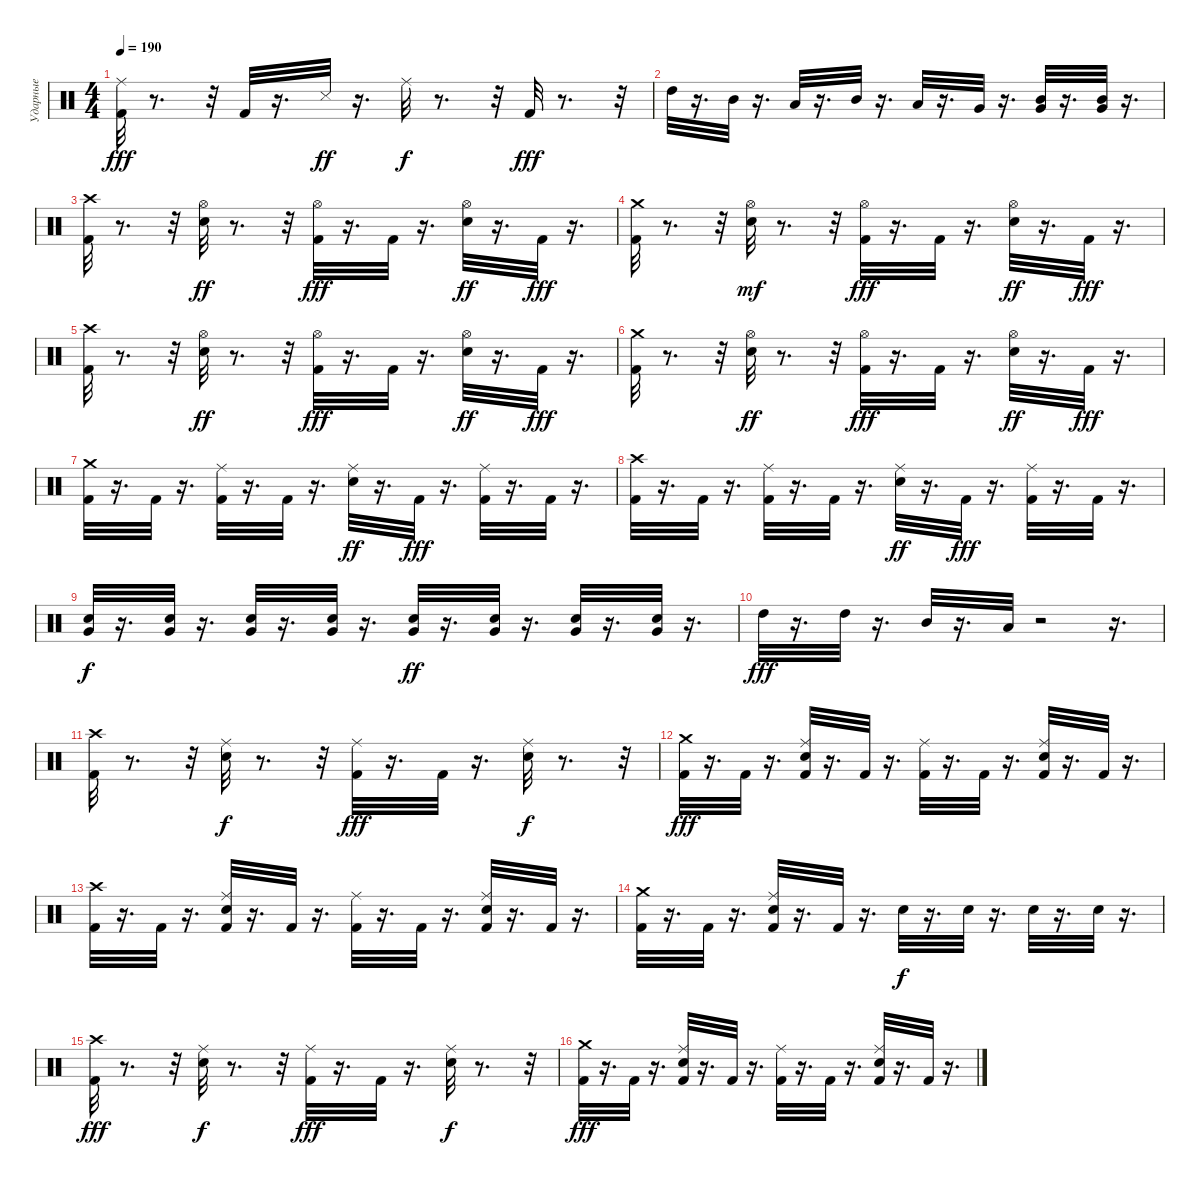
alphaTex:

\track ("Ударные" "Ударные") {instrument percussion}
\staff {score}
\articulation defaults
\ts (4 4)
\tempo 190
\clef neutral
\ks c
("Kick (hit) 2" "Ride (middle)").32{dy fff} r.8{d} r.32 "Kick (hit) 2".32 r.16{d} "Snare (side stick) 3".32{dy ff} r.16{d} "Ride (middle)".32{dy f} r.8{d} r.32 "Kick (hit) 2".32{dy fff} r.8{d} r.32 |
"High Tom (hit)".32 r.16{d} "Mid Tom (hit)".32 r.16{d} "Low Tom (hit)".32 r.16{d} "Mid Tom (hit)".32 r.16{d} "Low Tom (hit)".32 r.16{d} "Very Low Tom (hit)".32 r.16{d} ("Mid Tom (hit)" "Very Low Tom (hit)").32 r.16{d} ("Mid Tom (hit)" "Very Low Tom (hit)").32 r.16{d} |
("Kick (hit) 2" "Crash high (hit)").32 r.8{d} r.32 ("Hi-Hat (open)" "Snare (hit) 2").32{dy ff} r.8{d} r.32 ("Hi-Hat (open)" "Kick (hit) 2").32{dy fff} r.16{d} "Kick (hit) 2".32 r.16{d} ("Hi-Hat (open)" "Snare (hit) 2").32{dy ff} r.16{d} "Kick (hit) 2".32{dy fff} r.16{d} |
("Crash medium (hit)" "Kick (hit) 2").32 r.8{d} r.32 ("Snare (hit) 2" "Hi-Hat (open)").32{dy mf} r.8{d} r.32 ("Hi-Hat (open)" "Kick (hit) 2").32{dy fff} r.16{d} "Kick (hit) 2".32 r.16{d} ("Hi-Hat (open)" "Snare (hit) 2").32{dy ff} r.16{d} "Kick (hit) 2".32{dy fff} r.16{d} |
("Crash high (hit)" "Kick (hit) 2").32 r.8{d} r.32 ("Hi-Hat (open)" "Snare (hit) 2").32{dy ff} r.8{d} r.32 ("Hi-Hat (open)" "Kick (hit) 2").32{dy fff} r.16{d} "Kick (hit) 2".32 r.16{d} ("Hi-Hat (open)" "Snare (hit) 2").32{dy ff} r.16{d} "Kick (hit) 2".32{dy fff} r.16{d} |
("Crash medium (hit)" "Kick (hit) 2").32 r.8{d} r.32 ("Hi-Hat (open)" "Snare (hit) 2").32{dy ff} r.8{d} r.32 ("Hi-Hat (open)" "Kick (hit) 2").32{dy fff} r.16{d} "Kick (hit) 2".32 r.16{d} ("Hi-Hat (open)" "Snare (hit) 2").32{dy ff} r.16{d} "Kick (hit) 2".32{dy fff} r.16{d} |
("Crash medium (hit)" "Kick (hit) 2").32 r.16{d} "Kick (hit) 2".32 r.16{d} ("Kick (hit) 2" "Ride (middle)").32 r.16{d} "Kick (hit) 2".32 r.16{d} ("Snare (hit) 2" "Ride (middle)").32{dy ff} r.16{d} "Kick (hit) 2".32{dy fff} r.16{d} ("Kick (hit) 2" "Ride (middle)").32 r.16{d} "Kick (hit) 2".32 r.16{d} |
("Kick (hit) 2" "Crash high (hit)").32 r.16{d} "Kick (hit) 2".32 r.16{d} ("Ride (middle)" "Kick (hit) 2").32 r.16{d} "Kick (hit) 2".32 r.16{d} ("Ride (middle)" "Snare (hit) 2").32{dy ff} r.16{d} "Kick (hit) 2".32{dy fff} r.16{d} ("Kick (hit) 2" "Ride (middle)").32 r.16{d} "Kick (hit) 2".32 r.16{d} |
("Very Low Tom (hit)" "Snare (hit) 2").32{dy f} r.16{d} ("Very Low Tom (hit)" "Snare (hit) 2").32 r.16{d} ("Very Low Tom (hit)" "Snare (hit) 2").32 r.16{d} ("Very Low Tom (hit)" "Snare (hit) 2").32 r.16{d} ("Very Low Tom (hit)" "Snare (hit) 2").32{dy ff} r.16{d} ("Very Low Tom (hit)" "Snare (hit) 2").32 r.16{d} ("Very Low Tom (hit)" "Snare (hit) 2").32 r.16{d} ("Very Low Tom (hit)" "Snare (hit) 2").32 r.16{d} |
"High Tom (hit)".32{dy fff} r.16{d} "High Tom (hit)".32 r.16{d} "Mid Tom (hit)".32 r.16{d} "Low Tom (hit)".32 r.2 r.16{d} |
("Kick (hit) 2" "Crash high (hit)").32 r.8{d} r.32 ("Ride (middle)" "Snare (hit) 2").32{dy f} r.8{d} r.32 ("Kick (hit) 2" "Ride (middle)").32{dy fff} r.16{d} "Kick (hit) 2".32 r.16{d} ("Ride (middle)" "Snare (hit) 2").32{dy f} r.8{d} r.32 |
("Crash medium (hit)" "Kick (hit) 2").32{dy fff} r.16{d} "Kick (hit) 2".32 r.16{d} ("Ride (middle)" "Snare (hit) 2" "Kick (hit) 2").32 r.16{d} "Kick (hit) 2".32 r.16{d} ("Ride (middle)" "Kick (hit) 2").32 r.16{d} "Kick (hit) 2".32 r.16{d} ("Ride (middle)" "Snare (hit) 2" "Kick (hit) 2").32 r.16{d} "Kick (hit) 2".32 r.16{d} |
("Crash high (hit)" "Kick (hit) 2").32 r.16{d} "Kick (hit) 2".32 r.16{d} ("Ride (middle)" "Snare (hit) 2" "Kick (hit) 2").32 r.16{d} "Kick (hit) 2".32 r.16{d} ("Ride (middle)" "Kick (hit) 2").32 r.16{d} "Kick (hit) 2".32 r.16{d} ("Kick (hit) 2" "Ride (middle)" "Snare (hit) 2").32 r.16{d} "Kick (hit) 2".32 r.16{d} |
("Crash medium (hit)" "Kick (hit) 2").32 r.16{d} "Kick (hit) 2".32 r.16{d} ("Ride (middle)" "Kick (hit) 2" "Snare (hit) 2").32 r.16{d} "Kick (hit) 2".32 r.16{d} "Snare (hit) 2".32{dy f} r.16{d} "Snare (hit) 2".32 r.16{d} "Snare (hit) 2".32 r.16{d} "Snare (hit) 2".32 r.16{d} |
("Kick (hit) 2" "Crash high (hit)").32{dy fff} r.8{d} r.32 ("Ride (middle)" "Snare (hit) 2").32{dy f} r.8{d} r.32 ("Kick (hit) 2" "Ride (middle)").32{dy fff} r.16{d} "Kick (hit) 2".32 r.16{d} ("Ride (middle)" "Snare (hit) 2").32{dy f} r.8{d} r.32 |
("Crash medium (hit)" "Kick (hit) 2").32{dy fff} r.16{d} "Kick (hit) 2".32 r.16{d} ("Ride (middle)" "Snare (hit) 2" "Kick (hit) 2").32 r.16{d} "Kick (hit) 2".32 r.16{d} ("Ride (middle)" "Kick (hit) 2").32 r.16{d} "Kick (hit) 2".32 r.16{d} ("Ride (middle)" "Snare (hit) 2" "Kick (hit) 2").32 r.16{d} "Kick (hit) 2".32 r.16{d}
